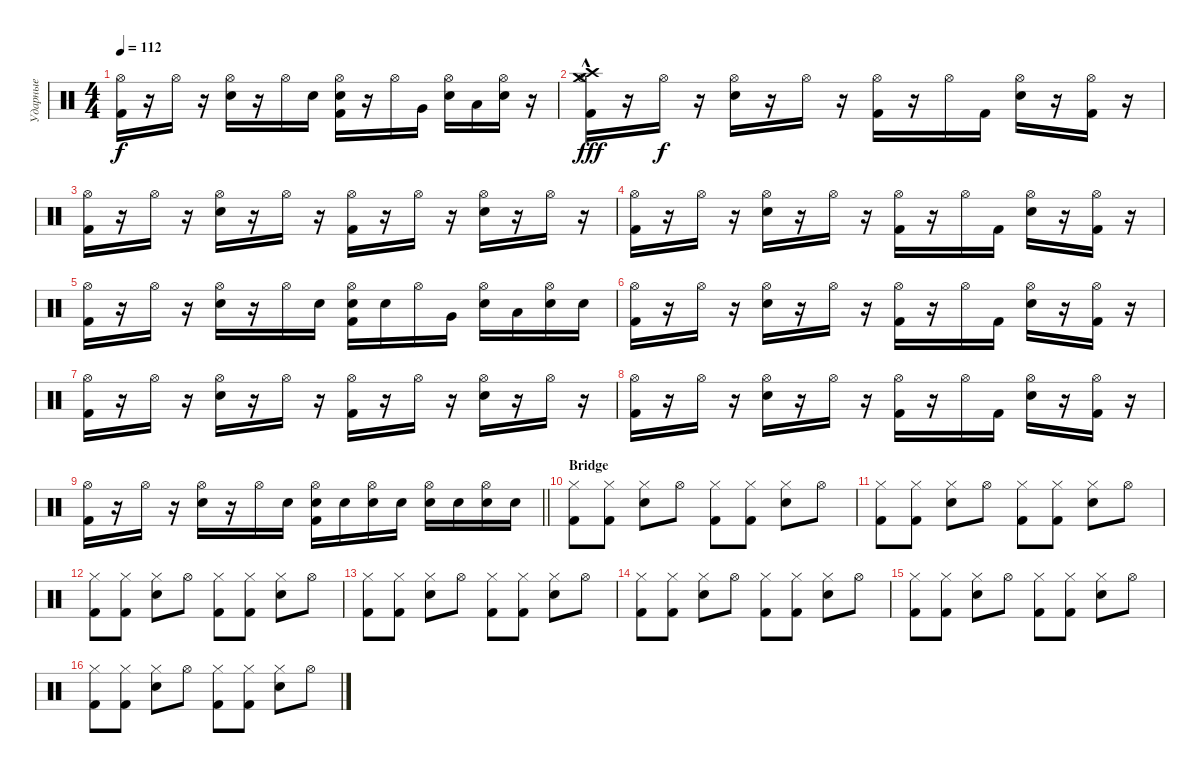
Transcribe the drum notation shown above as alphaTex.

\track ("Ударные" "Ударные") {instrument percussion}
\staff {score}
\articulation defaults
\ts (4 4)
\tempo 112
\clef neutral
\ks c
("Hi-Hat (open)" "Kick (hit) 2").16{dy f} r.16 "Hi-Hat (open)".16 r.16 ("Hi-Hat (open)" "Snare (hit) 2").16 r.16 "Hi-Hat (open)".16 "Snare (hit) 2".16 ("Hi-Hat (open)" "Electric Snare (hit)" "Kick (hit) 2").16 r.16 "Hi-Hat (open)".16 "Very Low Tom (hit)".16 ("Hi-Hat (open)" "Snare (hit) 2").16 "Low Floor Tom (hit)".16 ("Hi-Hat (open)" "Electric Snare (hit)").16 r.16 |
("Crash high (hit)"{hac} "Crash medium (hit)"{hac} "Hi-Hat (open)" "Kick (hit) 2").16{dy fff} r.16 "Hi-Hat (open)".16{dy f} r.16 ("Hi-Hat (open)" "Snare (hit) 2").16 r.16 "Hi-Hat (open)".16 r.16 ("Hi-Hat (open)" "Kick (hit) 2").16 r.16 "Hi-Hat (open)".16 "Kick (hit) 2".16 ("Hi-Hat (open)" "Snare (hit) 2").16 r.16 ("Hi-Hat (open)" "Kick (hit) 2").16 r.16 |
("Hi-Hat (open)" "Kick (hit) 2").16 r.16 "Hi-Hat (open)".16 r.16 ("Hi-Hat (open)" "Snare (hit) 2").16 r.16 "Hi-Hat (open)".16 r.16 ("Hi-Hat (open)" "Kick (hit) 2").16 r.16 "Hi-Hat (open)".16 r.16 ("Hi-Hat (open)" "Snare (hit) 2").16 r.16 "Hi-Hat (open)".16 r.16 |
("Hi-Hat (open)" "Kick (hit) 2").16 r.16 "Hi-Hat (open)".16 r.16 ("Hi-Hat (open)" "Snare (hit) 2").16 r.16 "Hi-Hat (open)".16 r.16 ("Hi-Hat (open)" "Kick (hit) 2").16 r.16 "Hi-Hat (open)".16 "Kick (hit) 2".16 ("Hi-Hat (open)" "Snare (hit) 2").16 r.16 ("Hi-Hat (open)" "Kick (hit) 2").16 r.16 |
("Hi-Hat (open)" "Kick (hit) 2").16 r.16 "Hi-Hat (open)".16 r.16 ("Hi-Hat (open)" "Snare (hit) 2").16 r.16 "Hi-Hat (open)".16 "Snare (hit) 2".16 ("Hi-Hat (open)" "Electric Snare (hit)" "Kick (hit) 2").16 "Snare (hit) 2".16 "Hi-Hat (open)".16 "Very Low Tom (hit)".16 ("Hi-Hat (open)" "Snare (hit) 2").16 "Low Floor Tom (hit)".16 ("Hi-Hat (open)" "Electric Snare (hit)").16 "Snare (hit) 2".16 |
("Hi-Hat (open)" "Kick (hit) 2").16 r.16 "Hi-Hat (open)".16 r.16 ("Hi-Hat (open)" "Snare (hit) 2").16 r.16 "Hi-Hat (open)".16 r.16 ("Hi-Hat (open)" "Kick (hit) 2").16 r.16 "Hi-Hat (open)".16 "Kick (hit) 2".16 ("Hi-Hat (open)" "Snare (hit) 2").16 r.16 ("Hi-Hat (open)" "Kick (hit) 2").16 r.16 |
("Hi-Hat (open)" "Kick (hit) 2").16 r.16 "Hi-Hat (open)".16 r.16 ("Hi-Hat (open)" "Snare (hit) 2").16 r.16 "Hi-Hat (open)".16 r.16 ("Hi-Hat (open)" "Kick (hit) 2").16 r.16 "Hi-Hat (open)".16 r.16 ("Hi-Hat (open)" "Snare (hit) 2").16 r.16 "Hi-Hat (open)".16 r.16 |
("Hi-Hat (open)" "Kick (hit) 2").16 r.16 "Hi-Hat (open)".16 r.16 ("Hi-Hat (open)" "Snare (hit) 2").16 r.16 "Hi-Hat (open)".16 r.16 ("Hi-Hat (open)" "Kick (hit) 2").16 r.16 "Hi-Hat (open)".16 "Kick (hit) 2".16 ("Hi-Hat (open)" "Snare (hit) 2").16 r.16 ("Hi-Hat (open)" "Kick (hit) 2").16 r.16 |
\barLineRight lightlight
("Hi-Hat (open)" "Kick (hit) 2").16 r.16 "Hi-Hat (open)".16 r.16 ("Hi-Hat (open)" "Snare (hit) 2").16 r.16 "Hi-Hat (open)".16 "Snare (hit) 2".16 ("Hi-Hat (open)" "Electric Snare (hit)" "Kick (hit) 2").16 "Snare (hit) 2".16 ("Hi-Hat (open)" "Snare (hit) 2").16 "Snare (hit) 2".16 ("Hi-Hat (open)" "Snare (hit) 2").16 "Snare (hit) 2".16 ("Hi-Hat (open)" "Electric Snare (hit)").16 "Snare (hit) 2".16 |
\section ("" "Bridge")
("Hi-Hat (closed)" "Kick (hit) 2").8 ("Hi-Hat (closed)" "Kick (hit) 2").8 ("Hi-Hat (closed)" "Snare (hit) 2").8 "Hi-Hat (open)".8 ("Hi-Hat (closed)" "Kick (hit) 2").8 ("Hi-Hat (closed)" "Kick (hit) 2").8 ("Hi-Hat (closed)" "Snare (hit) 2").8 "Hi-Hat (open)".8 |
("Hi-Hat (closed)" "Kick (hit) 2").8 ("Hi-Hat (closed)" "Kick (hit) 2").8 ("Hi-Hat (closed)" "Snare (hit) 2").8 "Hi-Hat (open)".8 ("Hi-Hat (closed)" "Kick (hit) 2").8 ("Hi-Hat (closed)" "Kick (hit) 2").8 ("Hi-Hat (closed)" "Snare (hit) 2").8 "Hi-Hat (open)".8 |
("Hi-Hat (closed)" "Kick (hit) 2").8 ("Hi-Hat (closed)" "Kick (hit) 2").8 ("Hi-Hat (closed)" "Snare (hit) 2").8 "Hi-Hat (open)".8 ("Hi-Hat (closed)" "Kick (hit) 2").8 ("Hi-Hat (closed)" "Kick (hit) 2").8 ("Hi-Hat (closed)" "Snare (hit) 2").8 "Hi-Hat (open)".8 |
("Hi-Hat (closed)" "Kick (hit) 2").8 ("Hi-Hat (closed)" "Kick (hit) 2").8 ("Hi-Hat (closed)" "Snare (hit) 2").8 "Hi-Hat (open)".8 ("Hi-Hat (closed)" "Kick (hit) 2").8 ("Hi-Hat (closed)" "Kick (hit) 2").8 ("Hi-Hat (closed)" "Snare (hit) 2").8 "Hi-Hat (open)".8 |
("Hi-Hat (closed)" "Kick (hit) 2").8 ("Hi-Hat (closed)" "Kick (hit) 2").8 ("Hi-Hat (closed)" "Snare (hit) 2").8 "Hi-Hat (open)".8 ("Hi-Hat (closed)" "Kick (hit) 2").8 ("Hi-Hat (closed)" "Kick (hit) 2").8 ("Hi-Hat (closed)" "Snare (hit) 2").8 "Hi-Hat (open)".8 |
("Hi-Hat (closed)" "Kick (hit) 2").8 ("Hi-Hat (closed)" "Kick (hit) 2").8 ("Hi-Hat (closed)" "Snare (hit) 2").8 "Hi-Hat (open)".8 ("Hi-Hat (closed)" "Kick (hit) 2").8 ("Hi-Hat (closed)" "Kick (hit) 2").8 ("Hi-Hat (closed)" "Snare (hit) 2").8 "Hi-Hat (open)".8 |
("Hi-Hat (closed)" "Kick (hit) 2").8 ("Hi-Hat (closed)" "Kick (hit) 2").8 ("Hi-Hat (closed)" "Snare (hit) 2").8 "Hi-Hat (open)".8 ("Hi-Hat (closed)" "Kick (hit) 2").8 ("Hi-Hat (closed)" "Kick (hit) 2").8 ("Hi-Hat (closed)" "Snare (hit) 2").8 "Hi-Hat (open)".8
